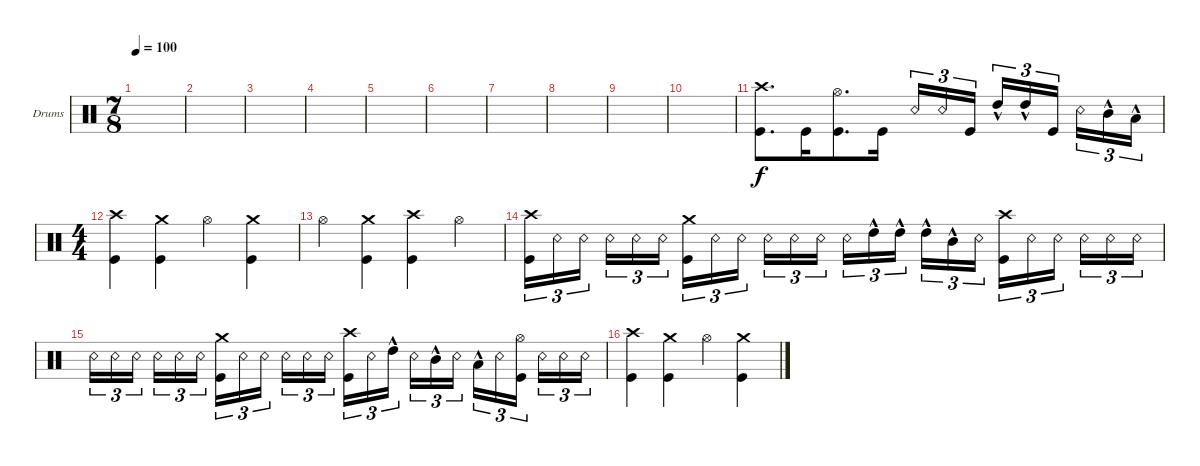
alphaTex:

\defaultSystemsLayout 4
\bracketExtendMode groupsimilarinstruments
\firstSystemTrackNameOrientation horizontal
\otherSystemsTrackNameOrientation horizontal
\track ("Drumkit" "Drums") {instrument percussion}
\staff {score}
\articulation defaults
\ts (7 8)
\tempo 100
\clef neutral
\ks c
|
|
|
|
|
|
|
|
|
|
("Kick (hit)" "Crash high (hit)").8{d} "Kick (hit)".16 ("Hi-Hat (open)" "Kick (hit)").8{d} "Kick (hit)".16 "Snare (rim shot)".16{tu (3 2)} "Snare (rim shot)".16{tu (3 2)} "Kick (hit)".16{tu (3 2)} "High Tom (hit)"{hac}.16{tu (3 2)} "High Tom (hit)"{hac}.16{tu (3 2)} "Kick (hit)".16{tu (3 2)} "Snare (rim shot)".16{tu (3 2)} "Mid Tom (hit)"{hac}.16{tu (3 2)} "Low Tom (hit)"{hac}.16{tu (3 2)} |
\ts (4 4)
("Kick (hit)" "Crash high (hit)").4 ("Kick (hit)" "Crash medium (hit)").4 "Hi-Hat (open)".4 ("Crash medium (hit)" "Kick (hit)").4 |
"Hi-Hat (open)".4 ("Kick (hit)" "Crash medium (hit)").4 ("Crash high (hit)" "Kick (hit)").4 "Hi-Hat (open)".4 |
("Kick (hit)" "Crash high (hit)").16{tu (3 2)} "Snare (rim shot)".16{tu (3 2)} "Snare (rim shot)".16{tu (3 2)} "Snare (rim shot)".16{tu (3 2)} "Snare (rim shot)".16{tu (3 2)} "Snare (rim shot)".16{tu (3 2)} ("Crash medium (hit)" "Kick (hit)").16{tu (3 2)} "Snare (rim shot)".16{tu (3 2)} "Snare (rim shot)".16{tu (3 2)} "Snare (rim shot)".16{tu (3 2)} "Snare (rim shot)".16{tu (3 2)} "Snare (rim shot)".16{tu (3 2)} "Snare (rim shot)".16{tu (3 2)} "High Tom (hit)"{hac}.16{tu (3 2)} "High Tom (hit)"{hac}.16{tu (3 2)} "High Tom (hit)"{hac}.16{tu (3 2)} "Mid Tom (hit)"{hac}.16{tu (3 2)} "Snare (rim shot)".16{tu (3 2)} ("Kick (hit)" "Crash high (hit)").16{tu (3 2)} "Snare (rim shot)".16{tu (3 2)} "Snare (rim shot)".16{tu (3 2)} "Snare (rim shot)".16{tu (3 2)} "Snare (rim shot)".16{tu (3 2)} "Snare (rim shot)".16{tu (3 2)} |
"Snare (rim shot)".16{tu (3 2)} "Snare (rim shot)".16{tu (3 2)} "Snare (rim shot)".16{tu (3 2)} "Snare (rim shot)".16{tu (3 2)} "Snare (rim shot)".16{tu (3 2)} "Snare (rim shot)".16{tu (3 2)} ("Crash medium (hit)" "Kick (hit)").16{tu (3 2)} "Snare (rim shot)".16{tu (3 2)} "Snare (rim shot)".16{tu (3 2)} "Snare (rim shot)".16{tu (3 2)} "Snare (rim shot)".16{tu (3 2)} "Snare (rim shot)".16{tu (3 2)} ("Kick (hit)" "Crash high (hit)").16{tu (3 2)} "Snare (rim shot)".16{tu (3 2)} "High Tom (hit)"{hac}.16{tu (3 2)} "Snare (rim shot)".16{tu (3 2)} "Mid Tom (hit)"{hac}.16{tu (3 2)} "Snare (rim shot)".16{tu (3 2)} "Low Tom (hit)"{hac}.16{tu (3 2)} "Snare (rim shot)".16{tu (3 2)} ("Kick (hit)" "Hi-Hat (open)").16{tu (3 2)} "Snare (rim shot)".16{tu (3 2)} "Snare (rim shot)".16{tu (3 2)} "Snare (rim shot)".16{tu (3 2)} |
("Kick (hit)" "Crash high (hit)").4 ("Kick (hit)" "Crash medium (hit)").4 "Hi-Hat (open)".4 ("Crash medium (hit)" "Kick (hit)").4
